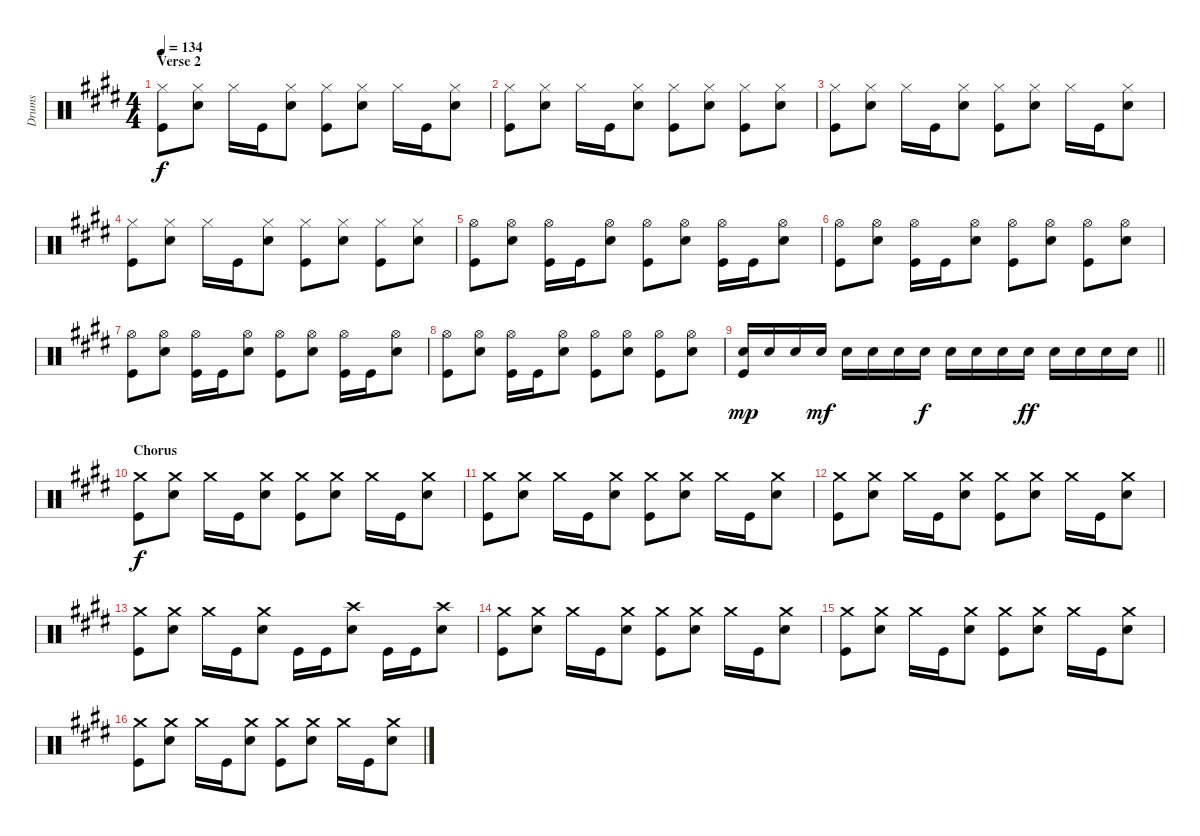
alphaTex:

\track ("Drums" "Drums") {instrument percussion}
\staff {score}
\articulation defaults
\ts (4 4)
\section ("" "Verse 2")
\tempo 134
\clef neutral
\ks e
("Hi-Hat (closed)" "Kick (hit)").8{dy f} ("Hi-Hat (closed)" "Snare (hit) 2").8 "Hi-Hat (closed)".16 "Kick (hit)".16 ("Hi-Hat (closed)" "Snare (hit) 2").8 ("Hi-Hat (closed)" "Kick (hit)").8 ("Hi-Hat (closed)" "Snare (hit) 2").8 "Hi-Hat (closed)".16 "Kick (hit)".16 ("Hi-Hat (closed)" "Snare (hit) 2").8 |
("Hi-Hat (closed)" "Kick (hit)").8 ("Hi-Hat (closed)" "Snare (hit) 2").8 "Hi-Hat (closed)".16 "Kick (hit)".16 ("Hi-Hat (closed)" "Snare (hit) 2").8 ("Hi-Hat (closed)" "Kick (hit)").8 ("Hi-Hat (closed)" "Snare (hit) 2").8 ("Hi-Hat (closed)" "Kick (hit)").8 ("Hi-Hat (closed)" "Snare (hit) 2").8 |
("Hi-Hat (closed)" "Kick (hit)").8 ("Hi-Hat (closed)" "Snare (hit) 2").8 "Hi-Hat (closed)".16 "Kick (hit)".16 ("Hi-Hat (closed)" "Snare (hit) 2").8 ("Hi-Hat (closed)" "Kick (hit)").8 ("Hi-Hat (closed)" "Snare (hit) 2").8 "Hi-Hat (closed)".16 "Kick (hit)".16 ("Hi-Hat (closed)" "Snare (hit) 2").8 |
("Hi-Hat (closed)" "Kick (hit)").8 ("Hi-Hat (closed)" "Snare (hit) 2").8 "Hi-Hat (closed)".16 "Kick (hit)".16 ("Hi-Hat (closed)" "Snare (hit) 2").8 ("Hi-Hat (closed)" "Kick (hit)").8 ("Hi-Hat (closed)" "Snare (hit) 2").8 ("Hi-Hat (closed)" "Kick (hit)").8 ("Hi-Hat (closed)" "Snare (hit) 2").8 |
("Hi-Hat (open)" "Kick (hit)").8 ("Hi-Hat (open)" "Snare (hit) 2").8 ("Hi-Hat (open)" "Kick (hit)").16 "Kick (hit)".16 ("Hi-Hat (open)" "Snare (hit) 2").8 ("Hi-Hat (open)" "Kick (hit)").8 ("Hi-Hat (open)" "Snare (hit) 2").8 ("Hi-Hat (open)" "Kick (hit)").16 "Kick (hit)".16 ("Hi-Hat (open)" "Snare (hit) 2").8 |
("Hi-Hat (open)" "Kick (hit)").8 ("Hi-Hat (open)" "Snare (hit) 2").8 ("Hi-Hat (open)" "Kick (hit)").16 "Kick (hit)".16 ("Hi-Hat (open)" "Snare (hit) 2").8 ("Hi-Hat (open)" "Kick (hit)").8 ("Hi-Hat (open)" "Snare (hit) 2").8 ("Hi-Hat (open)" "Kick (hit)").8 ("Hi-Hat (open)" "Snare (hit) 2").8 |
("Hi-Hat (open)" "Kick (hit)").8 ("Hi-Hat (open)" "Snare (hit) 2").8 ("Hi-Hat (open)" "Kick (hit)").16 "Kick (hit)".16 ("Hi-Hat (open)" "Snare (hit) 2").8 ("Hi-Hat (open)" "Kick (hit)").8 ("Hi-Hat (open)" "Snare (hit) 2").8 ("Hi-Hat (open)" "Kick (hit)").16 "Kick (hit)".16 ("Hi-Hat (open)" "Snare (hit) 2").8 |
("Hi-Hat (open)" "Kick (hit)").8 ("Hi-Hat (open)" "Snare (hit) 2").8 ("Hi-Hat (open)" "Kick (hit)").16 "Kick (hit)".16 ("Hi-Hat (open)" "Snare (hit) 2").8 ("Hi-Hat (open)" "Kick (hit)").8 ("Hi-Hat (open)" "Snare (hit) 2").8 ("Hi-Hat (open)" "Kick (hit)").8 ("Hi-Hat (open)" "Snare (hit) 2").8 |
\barLineRight lightlight
("Snare (hit) 2" "Kick (hit)").16{dy mp} "Snare (hit) 2".16 "Snare (hit) 2".16 "Snare (hit) 2".16{dy mf} "Snare (hit) 2".16 "Snare (hit) 2".16 "Snare (hit) 2".16 "Snare (hit) 2".16{dy f} "Snare (hit) 2".16 "Snare (hit) 2".16 "Snare (hit) 2".16 "Snare (hit) 2".16{dy ff} "Snare (hit) 2".16 "Snare (hit) 2".16 "Snare (hit) 2".16 "Snare (hit) 2".16 |
\section ("" "Chorus")
("Crash medium (hit)" "Kick (hit)").8{dy f} ("Crash medium (hit)" "Snare (hit) 2").8 "Crash medium (hit)".16 "Kick (hit)".16 ("Crash medium (hit)" "Snare (hit) 2").8 ("Crash medium (hit)" "Kick (hit)").8 ("Crash medium (hit)" "Snare (hit) 2").8 "Crash medium (hit)".16 "Kick (hit)".16 ("Crash medium (hit)" "Snare (hit) 2").8 |
("Crash medium (hit)" "Kick (hit)").8 ("Crash medium (hit)" "Snare (hit) 2").8 "Crash medium (hit)".16 "Kick (hit)".16 ("Crash medium (hit)" "Snare (hit) 2").8 ("Crash medium (hit)" "Kick (hit)").8 ("Crash medium (hit)" "Snare (hit) 2").8 "Crash medium (hit)".16 "Kick (hit)".16 ("Crash medium (hit)" "Snare (hit) 2").8 |
("Crash medium (hit)" "Kick (hit)").8 ("Crash medium (hit)" "Snare (hit) 2").8 "Crash medium (hit)".16 "Kick (hit)".16 ("Crash medium (hit)" "Snare (hit) 2").8 ("Crash medium (hit)" "Kick (hit)").8 ("Crash medium (hit)" "Snare (hit) 2").8 "Crash medium (hit)".16 "Kick (hit)".16 ("Crash medium (hit)" "Snare (hit) 2").8 |
("Crash medium (hit)" "Kick (hit)").8 ("Crash medium (hit)" "Snare (hit) 2").8 "Crash medium (hit)".16 "Kick (hit)".16 ("Crash medium (hit)" "Snare (hit) 2").8 "Kick (hit)".16 "Kick (hit)".16 ("Crash high (hit)" "Snare (hit) 2").8 "Kick (hit)".16 "Kick (hit)".16 ("Crash high (hit)" "Snare (hit) 2").8 |
("Crash medium (hit)" "Kick (hit)").8 ("Crash medium (hit)" "Snare (hit) 2").8 "Crash medium (hit)".16 "Kick (hit)".16 ("Crash medium (hit)" "Snare (hit) 2").8 ("Crash medium (hit)" "Kick (hit)").8 ("Crash medium (hit)" "Snare (hit) 2").8 "Crash medium (hit)".16 "Kick (hit)".16 ("Crash medium (hit)" "Snare (hit) 2").8 |
("Crash medium (hit)" "Kick (hit)").8 ("Crash medium (hit)" "Snare (hit) 2").8 "Crash medium (hit)".16 "Kick (hit)".16 ("Crash medium (hit)" "Snare (hit) 2").8 ("Crash medium (hit)" "Kick (hit)").8 ("Crash medium (hit)" "Snare (hit) 2").8 "Crash medium (hit)".16 "Kick (hit)".16 ("Crash medium (hit)" "Snare (hit) 2").8 |
("Crash medium (hit)" "Kick (hit)").8 ("Crash medium (hit)" "Snare (hit) 2").8 "Crash medium (hit)".16 "Kick (hit)".16 ("Crash medium (hit)" "Snare (hit) 2").8 ("Crash medium (hit)" "Kick (hit)").8 ("Crash medium (hit)" "Snare (hit) 2").8 "Crash medium (hit)".16 "Kick (hit)".16 ("Crash medium (hit)" "Snare (hit) 2").8
